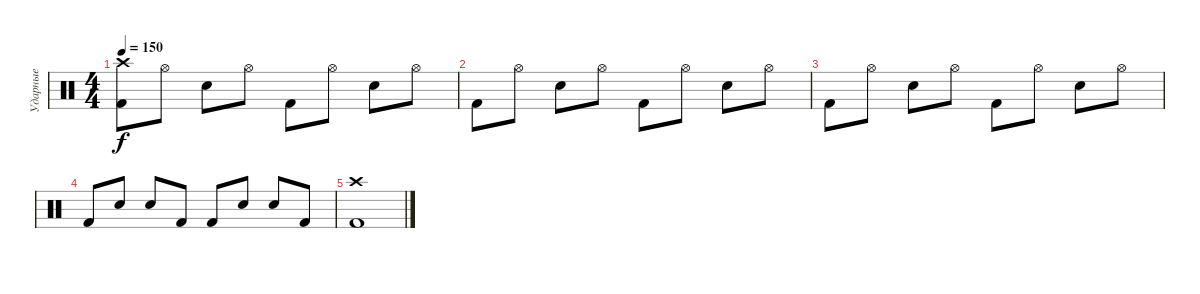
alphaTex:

\track ("Ударные" "Ударные") {instrument percussion}
\staff {score}
\articulation defaults
\ts (4 4)
\tempo 150
\clef neutral
\ks c
("Crash high (hit)" "Kick (hit) 2").8{dy f} "Hi-Hat (open)".8 "Electric Snare (hit)".8 "Hi-Hat (open)".8 "Kick (hit) 2".8 "Hi-Hat (open)".8 "Electric Snare (hit)".8 "Hi-Hat (open)".8 |
"Kick (hit) 2".8 "Hi-Hat (open)".8 "Electric Snare (hit)".8 "Hi-Hat (open)".8 "Kick (hit) 2".8 "Hi-Hat (open)".8 "Electric Snare (hit)".8 "Hi-Hat (open)".8 |
"Kick (hit) 2".8 "Hi-Hat (open)".8 "Electric Snare (hit)".8 "Hi-Hat (open)".8 "Kick (hit) 2".8 "Hi-Hat (open)".8 "Electric Snare (hit)".8 "Hi-Hat (open)".8 |
"Kick (hit) 2".8 "Electric Snare (hit)".8 "Electric Snare (hit)".8 "Kick (hit) 2".8 "Kick (hit) 2".8 "Electric Snare (hit)".8 "Electric Snare (hit)".8 "Kick (hit) 2".8 |
("Crash high (hit)" "Kick (hit) 2").1
